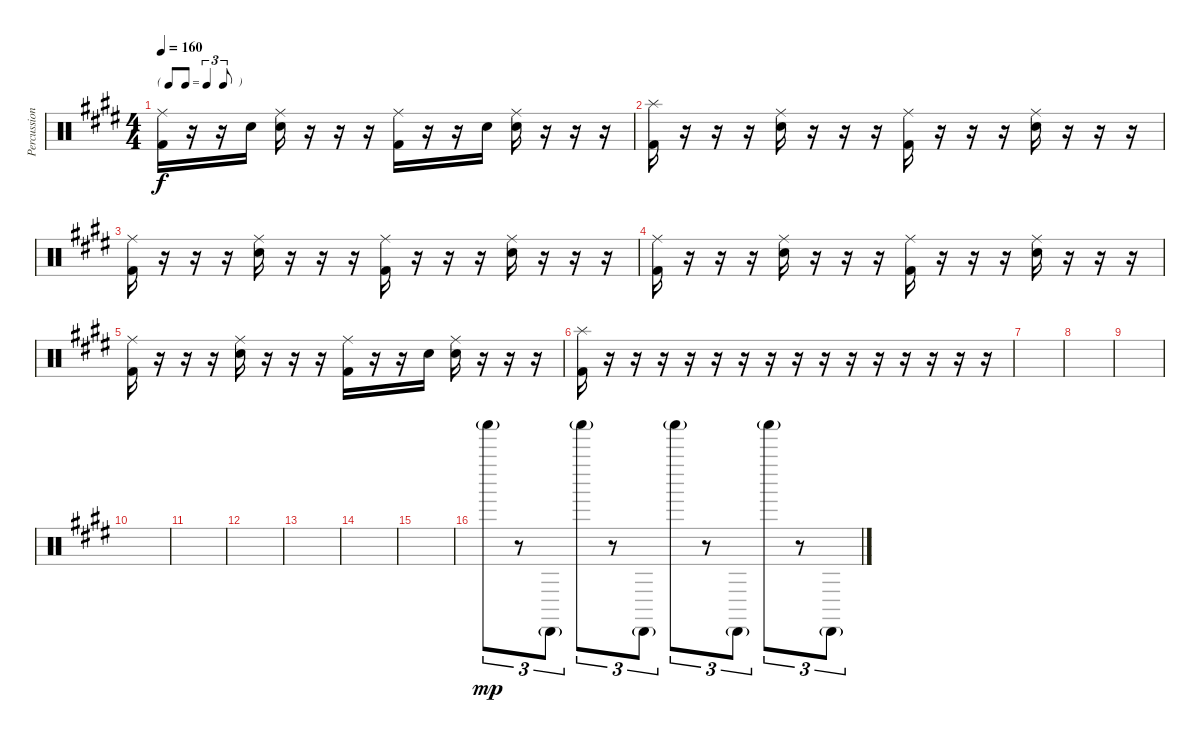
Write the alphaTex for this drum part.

\track ("Percussion" "Percussion") {instrument percussion}
\staff {score}
\articulation defaults
\ts (4 4)
\tf triplet8th
\tempo 160
\clef neutral
\ks e
("Ride (middle)" "Kick (hit) 2").16{dy f} r.16 r.16 "Snare (hit) 2".16 ("Ride (middle)" "Electric Snare (hit)").16 r.16 r.16 r.16 ("Ride (middle)" "Kick (hit) 2").16 r.16 r.16 "Snare (hit) 2".16 ("Ride (middle)" "Electric Snare (hit)").16 r.16 r.16 r.16 |
("Splash (hit)" "Kick (hit) 2").16 r.16 r.16 r.16 ("Ride (middle)" "Electric Snare (hit)").16 r.16 r.16 r.16 ("Ride (middle)" "Kick (hit) 2").16 r.16 r.16 r.16 ("Ride (middle)" "Electric Snare (hit)").16 r.16 r.16 r.16 |
("Ride (middle)" "Kick (hit) 2").16 r.16 r.16 r.16 ("Ride (middle)" "Electric Snare (hit)").16 r.16 r.16 r.16 ("Ride (middle)" "Kick (hit) 2").16 r.16 r.16 r.16 ("Ride (middle)" "Electric Snare (hit)").16 r.16 r.16 r.16 |
("Ride (middle)" "Kick (hit) 2").16 r.16 r.16 r.16 ("Ride (middle)" "Electric Snare (hit)").16 r.16 r.16 r.16 ("Ride (middle)" "Kick (hit) 2").16 r.16 r.16 r.16 ("Ride (middle)" "Electric Snare (hit)").16 r.16 r.16 r.16 |
("Ride (middle)" "Kick (hit) 2").16 r.16 r.16 r.16 ("Ride (middle)" "Electric Snare (hit)").16 r.16 r.16 r.16 ("Ride (middle)" "Kick (hit) 2").16 r.16 r.16 "Snare (hit) 2".16 ("Ride (middle)" "Electric Snare (hit)").16 r.16 r.16 r.16 |
("Splash (hit)" "Kick (hit) 2").16 r.16 r.16 r.16 r.16 r.16 r.16 r.16 r.16 r.16 r.16 r.16 r.16 r.16 r.16 r.16 |
|
|
|
|
|
|
|
|
|
"Shaker (hit)"{g}.8{tu (3 2) dy mp} r.8{tu (3 2)} "Cabasa (hit)"{g}.8{tu (3 2)} "Shaker (hit)"{g}.8{tu (3 2)} r.8{tu (3 2)} "Cabasa (hit)"{g}.8{tu (3 2)} "Shaker (hit)"{g}.8{tu (3 2)} r.8{tu (3 2)} "Cabasa (hit)"{g}.8{tu (3 2)} "Shaker (hit)"{g}.8{tu (3 2)} r.8{tu (3 2)} "Cabasa (hit)"{g}.8{tu (3 2)}
